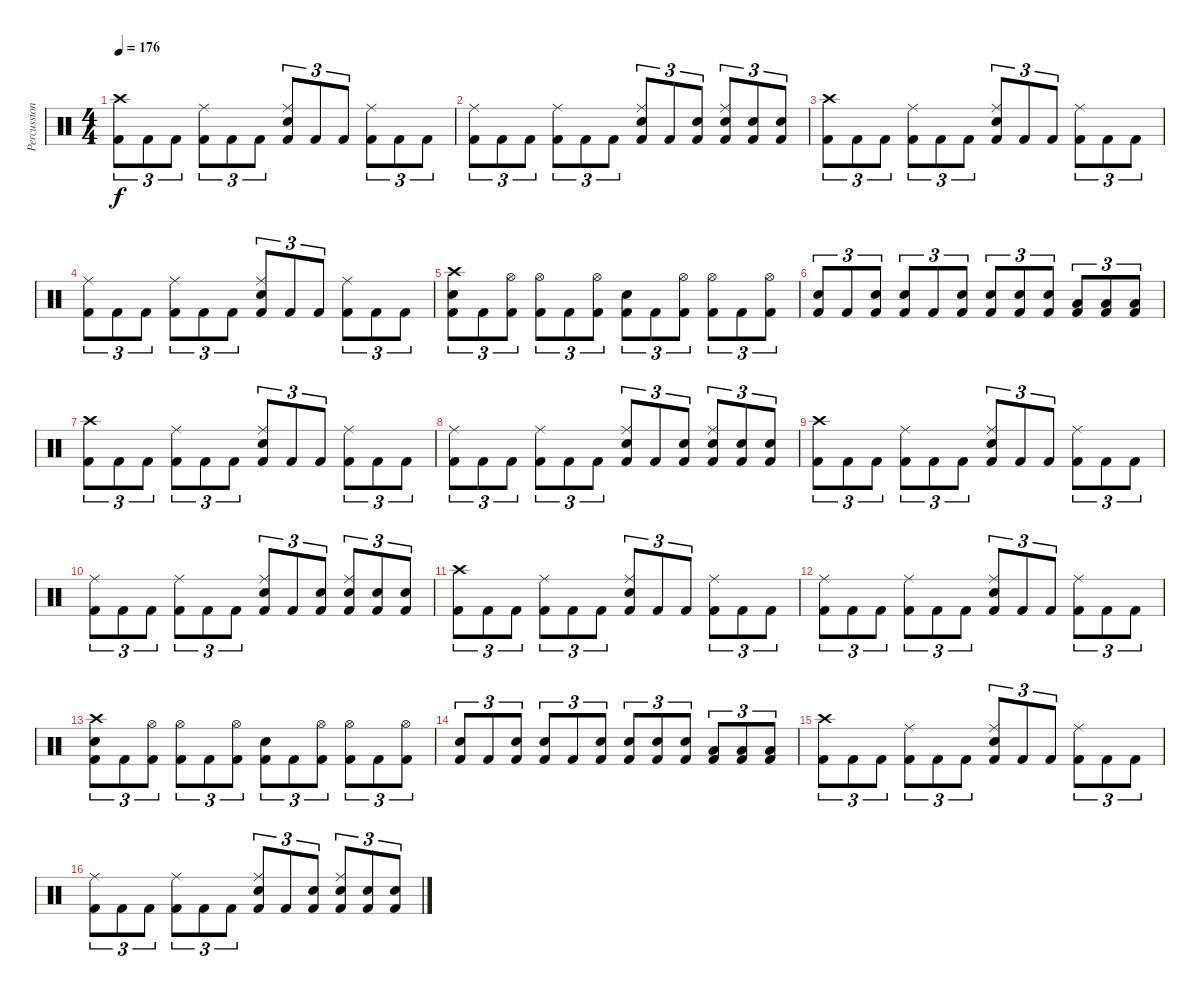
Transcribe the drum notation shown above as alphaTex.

\track ("Percussion" "Percussion") {instrument percussion}
\staff {score}
\articulation defaults
\ts (4 4)
\tempo 176
\clef neutral
\ks c
("Crash high (hit)" "Kick (hit) 2").8{tu (3 2) dy f} "Kick (hit) 2".8{tu (3 2)} "Kick (hit) 2".8{tu (3 2)} ("Ride (middle)" "Kick (hit) 2").8{tu (3 2)} "Kick (hit) 2".8{tu (3 2)} "Kick (hit) 2".8{tu (3 2)} ("Ride (middle)" "Snare (hit) 2" "Kick (hit) 2").8{tu (3 2)} "Kick (hit) 2".8{tu (3 2)} "Kick (hit) 2".8{tu (3 2)} ("Ride (middle)" "Kick (hit) 2").8{tu (3 2)} "Kick (hit) 2".8{tu (3 2)} "Kick (hit) 2".8{tu (3 2)} |
("Ride (middle)" "Kick (hit) 2").8{tu (3 2)} "Kick (hit) 2".8{tu (3 2)} "Kick (hit) 2".8{tu (3 2)} ("Ride (middle)" "Kick (hit) 2").8{tu (3 2)} "Kick (hit) 2".8{tu (3 2)} "Kick (hit) 2".8{tu (3 2)} ("Ride (middle)" "Snare (hit) 2" "Kick (hit) 2").8{tu (3 2)} "Kick (hit) 2".8{tu (3 2)} ("Snare (hit) 2" "Kick (hit) 2").8{tu (3 2)} ("Ride (middle)" "Snare (hit) 2" "Kick (hit) 2").8{tu (3 2)} ("Snare (hit) 2" "Kick (hit) 2").8{tu (3 2)} ("Snare (hit) 2" "Kick (hit) 2").8{tu (3 2)} |
("Crash high (hit)" "Kick (hit) 2").8{tu (3 2)} "Kick (hit) 2".8{tu (3 2)} "Kick (hit) 2".8{tu (3 2)} ("Ride (middle)" "Kick (hit) 2").8{tu (3 2)} "Kick (hit) 2".8{tu (3 2)} "Kick (hit) 2".8{tu (3 2)} ("Ride (middle)" "Snare (hit) 2" "Kick (hit) 2").8{tu (3 2)} "Kick (hit) 2".8{tu (3 2)} "Kick (hit) 2".8{tu (3 2)} ("Ride (middle)" "Kick (hit) 2").8{tu (3 2)} "Kick (hit) 2".8{tu (3 2)} "Kick (hit) 2".8{tu (3 2)} |
("Ride (middle)" "Kick (hit) 2").8{tu (3 2)} "Kick (hit) 2".8{tu (3 2)} "Kick (hit) 2".8{tu (3 2)} ("Ride (middle)" "Kick (hit) 2").8{tu (3 2)} "Kick (hit) 2".8{tu (3 2)} "Kick (hit) 2".8{tu (3 2)} ("Ride (middle)" "Snare (hit) 2" "Kick (hit) 2").8{tu (3 2)} "Kick (hit) 2".8{tu (3 2)} "Kick (hit) 2".8{tu (3 2)} ("Ride (middle)" "Kick (hit) 2").8{tu (3 2)} "Kick (hit) 2".8{tu (3 2)} "Kick (hit) 2".8{tu (3 2)} |
("Crash high (hit)" "Snare (hit) 2" "Kick (hit) 2").8{tu (3 2)} "Kick (hit) 2".8{tu (3 2)} ("Hi-Hat (open)" "Kick (hit) 2").8{tu (3 2)} ("Hi-Hat (open)" "Kick (hit) 2").8{tu (3 2)} "Kick (hit) 2".8{tu (3 2)} ("Hi-Hat (open)" "Kick (hit) 2").8{tu (3 2)} ("Snare (hit) 2" "Kick (hit) 2").8{tu (3 2)} "Kick (hit) 2".8{tu (3 2)} ("Hi-Hat (open)" "Kick (hit) 2").8{tu (3 2)} ("Hi-Hat (open)" "Kick (hit) 2").8{tu (3 2)} "Kick (hit) 2".8{tu (3 2)} ("Hi-Hat (open)" "Kick (hit) 2").8{tu (3 2)} |
("Snare (hit) 2" "Kick (hit) 2").8{tu (3 2)} "Kick (hit) 2".8{tu (3 2)} ("Snare (hit) 2" "Kick (hit) 2").8{tu (3 2)} ("Snare (hit) 2" "Kick (hit) 2").8{tu (3 2)} "Kick (hit) 2".8{tu (3 2)} ("Snare (hit) 2" "Kick (hit) 2").8{tu (3 2)} ("Snare (hit) 2" "Kick (hit) 2").8{tu (3 2)} ("Snare (hit) 2" "Kick (hit) 2").8{tu (3 2)} ("Snare (hit) 2" "Kick (hit) 2").8{tu (3 2)} ("Low Floor Tom (hit)" "Kick (hit) 2").8{tu (3 2)} ("Low Floor Tom (hit)" "Kick (hit) 2").8{tu (3 2)} ("Low Floor Tom (hit)" "Kick (hit) 2").8{tu (3 2)} |
("Crash high (hit)" "Kick (hit) 2").8{tu (3 2) volume 10} "Kick (hit) 2".8{tu (3 2)} "Kick (hit) 2".8{tu (3 2)} ("Ride (middle)" "Kick (hit) 2").8{tu (3 2)} "Kick (hit) 2".8{tu (3 2)} "Kick (hit) 2".8{tu (3 2)} ("Ride (middle)" "Snare (hit) 2" "Kick (hit) 2").8{tu (3 2)} "Kick (hit) 2".8{tu (3 2)} "Kick (hit) 2".8{tu (3 2)} ("Ride (middle)" "Kick (hit) 2").8{tu (3 2)} "Kick (hit) 2".8{tu (3 2)} "Kick (hit) 2".8{tu (3 2)} |
("Ride (middle)" "Kick (hit) 2").8{tu (3 2)} "Kick (hit) 2".8{tu (3 2)} "Kick (hit) 2".8{tu (3 2)} ("Ride (middle)" "Kick (hit) 2").8{tu (3 2)} "Kick (hit) 2".8{tu (3 2)} "Kick (hit) 2".8{tu (3 2)} ("Ride (middle)" "Snare (hit) 2" "Kick (hit) 2").8{tu (3 2)} "Kick (hit) 2".8{tu (3 2)} ("Snare (hit) 2" "Kick (hit) 2").8{tu (3 2)} ("Ride (middle)" "Snare (hit) 2" "Kick (hit) 2").8{tu (3 2)} ("Snare (hit) 2" "Kick (hit) 2").8{tu (3 2)} ("Snare (hit) 2" "Kick (hit) 2").8{tu (3 2)} |
("Crash high (hit)" "Kick (hit) 2").8{tu (3 2)} "Kick (hit) 2".8{tu (3 2)} "Kick (hit) 2".8{tu (3 2)} ("Ride (middle)" "Kick (hit) 2").8{tu (3 2)} "Kick (hit) 2".8{tu (3 2)} "Kick (hit) 2".8{tu (3 2)} ("Ride (middle)" "Snare (hit) 2" "Kick (hit) 2").8{tu (3 2)} "Kick (hit) 2".8{tu (3 2)} "Kick (hit) 2".8{tu (3 2)} ("Ride (middle)" "Kick (hit) 2").8{tu (3 2)} "Kick (hit) 2".8{tu (3 2)} "Kick (hit) 2".8{tu (3 2)} |
("Ride (middle)" "Kick (hit) 2").8{tu (3 2)} "Kick (hit) 2".8{tu (3 2)} "Kick (hit) 2".8{tu (3 2)} ("Ride (middle)" "Kick (hit) 2").8{tu (3 2)} "Kick (hit) 2".8{tu (3 2)} "Kick (hit) 2".8{tu (3 2)} ("Ride (middle)" "Snare (hit) 2" "Kick (hit) 2").8{tu (3 2)} "Kick (hit) 2".8{tu (3 2)} ("Snare (hit) 2" "Kick (hit) 2").8{tu (3 2)} ("Ride (middle)" "Snare (hit) 2" "Kick (hit) 2").8{tu (3 2)} ("Snare (hit) 2" "Kick (hit) 2").8{tu (3 2)} ("Snare (hit) 2" "Kick (hit) 2").8{tu (3 2)} |
("Crash high (hit)" "Kick (hit) 2").8{tu (3 2) volume 7} "Kick (hit) 2".8{tu (3 2)} "Kick (hit) 2".8{tu (3 2)} ("Ride (middle)" "Kick (hit) 2").8{tu (3 2)} "Kick (hit) 2".8{tu (3 2)} "Kick (hit) 2".8{tu (3 2)} ("Ride (middle)" "Snare (hit) 2" "Kick (hit) 2").8{tu (3 2)} "Kick (hit) 2".8{tu (3 2)} "Kick (hit) 2".8{tu (3 2)} ("Ride (middle)" "Kick (hit) 2").8{tu (3 2)} "Kick (hit) 2".8{tu (3 2)} "Kick (hit) 2".8{tu (3 2)} |
("Ride (middle)" "Kick (hit) 2").8{tu (3 2)} "Kick (hit) 2".8{tu (3 2)} "Kick (hit) 2".8{tu (3 2)} ("Ride (middle)" "Kick (hit) 2").8{tu (3 2)} "Kick (hit) 2".8{tu (3 2)} "Kick (hit) 2".8{tu (3 2)} ("Ride (middle)" "Snare (hit) 2" "Kick (hit) 2").8{tu (3 2)} "Kick (hit) 2".8{tu (3 2)} "Kick (hit) 2".8{tu (3 2)} ("Ride (middle)" "Kick (hit) 2").8{tu (3 2)} "Kick (hit) 2".8{tu (3 2)} "Kick (hit) 2".8{tu (3 2)} |
("Crash high (hit)" "Snare (hit) 2" "Kick (hit) 2").8{tu (3 2)} "Kick (hit) 2".8{tu (3 2)} ("Hi-Hat (open)" "Kick (hit) 2").8{tu (3 2)} ("Hi-Hat (open)" "Kick (hit) 2").8{tu (3 2)} "Kick (hit) 2".8{tu (3 2)} ("Hi-Hat (open)" "Kick (hit) 2").8{tu (3 2)} ("Snare (hit) 2" "Kick (hit) 2").8{tu (3 2)} "Kick (hit) 2".8{tu (3 2)} ("Hi-Hat (open)" "Kick (hit) 2").8{tu (3 2)} ("Hi-Hat (open)" "Kick (hit) 2").8{tu (3 2)} "Kick (hit) 2".8{tu (3 2)} ("Hi-Hat (open)" "Kick (hit) 2").8{tu (3 2)} |
("Snare (hit) 2" "Kick (hit) 2").8{tu (3 2)} "Kick (hit) 2".8{tu (3 2)} ("Snare (hit) 2" "Kick (hit) 2").8{tu (3 2)} ("Snare (hit) 2" "Kick (hit) 2").8{tu (3 2)} "Kick (hit) 2".8{tu (3 2)} ("Snare (hit) 2" "Kick (hit) 2").8{tu (3 2)} ("Snare (hit) 2" "Kick (hit) 2").8{tu (3 2)} ("Snare (hit) 2" "Kick (hit) 2").8{tu (3 2)} ("Snare (hit) 2" "Kick (hit) 2").8{tu (3 2)} ("Low Floor Tom (hit)" "Kick (hit) 2").8{tu (3 2)} ("Low Floor Tom (hit)" "Kick (hit) 2").8{tu (3 2)} ("Low Floor Tom (hit)" "Kick (hit) 2").8{tu (3 2)} |
("Crash high (hit)" "Kick (hit) 2").8{tu (3 2) volume 4} "Kick (hit) 2".8{tu (3 2)} "Kick (hit) 2".8{tu (3 2)} ("Ride (middle)" "Kick (hit) 2").8{tu (3 2)} "Kick (hit) 2".8{tu (3 2)} "Kick (hit) 2".8{tu (3 2)} ("Ride (middle)" "Snare (hit) 2" "Kick (hit) 2").8{tu (3 2)} "Kick (hit) 2".8{tu (3 2)} "Kick (hit) 2".8{tu (3 2)} ("Ride (middle)" "Kick (hit) 2").8{tu (3 2)} "Kick (hit) 2".8{tu (3 2)} "Kick (hit) 2".8{tu (3 2)} |
("Ride (middle)" "Kick (hit) 2").8{tu (3 2)} "Kick (hit) 2".8{tu (3 2)} "Kick (hit) 2".8{tu (3 2)} ("Ride (middle)" "Kick (hit) 2").8{tu (3 2)} "Kick (hit) 2".8{tu (3 2)} "Kick (hit) 2".8{tu (3 2)} ("Ride (middle)" "Snare (hit) 2" "Kick (hit) 2").8{tu (3 2)} "Kick (hit) 2".8{tu (3 2)} ("Snare (hit) 2" "Kick (hit) 2").8{tu (3 2)} ("Ride (middle)" "Snare (hit) 2" "Kick (hit) 2").8{tu (3 2)} ("Snare (hit) 2" "Kick (hit) 2").8{tu (3 2)} ("Snare (hit) 2" "Kick (hit) 2").8{tu (3 2)}
